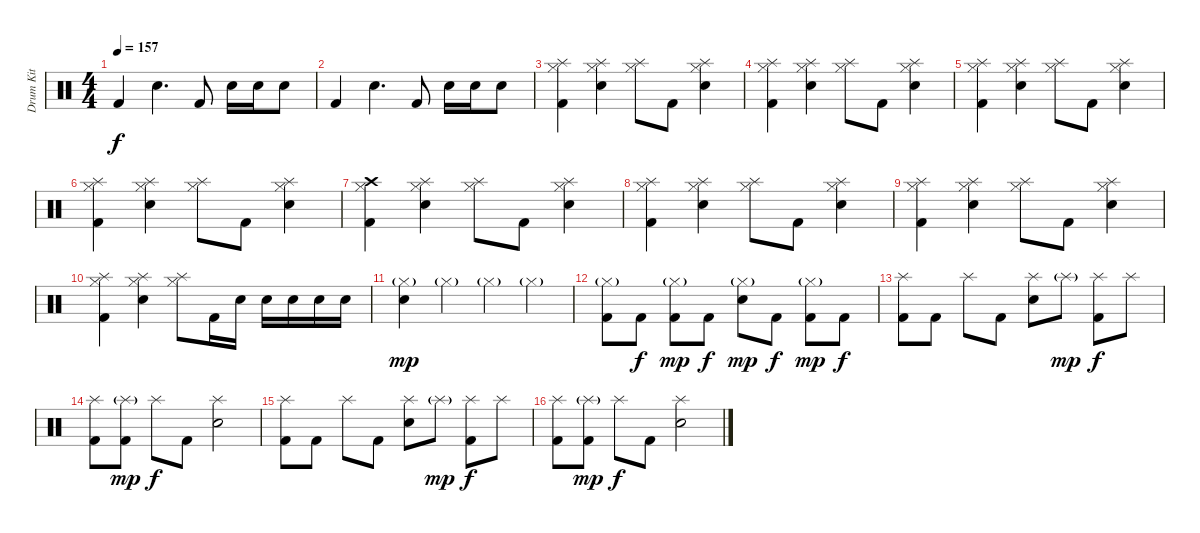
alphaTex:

\track ("Drum Kit" "Drum Kit") {instrument percussion}
\staff {score}
\articulation defaults
\ts (4 4)
\tempo 157
\clef neutral
\ks c "Kick (hit) 2".4{dy f} "Snare (hit) 2".4{d} "Kick (hit) 2".8 "Snare (hit) 2".16 "Snare (hit) 2".16 "Snare (hit) 2".8
|
"Kick (hit) 2".4 "Snare (hit) 2".4{d} "Kick (hit) 2".8 "Snare (hit) 2".16 "Snare (hit) 2".16 "Snare (hit) 2".8 |
("Splash (hit)" "Hi-Hat (closed)" "Kick (hit) 2").4 ("Splash (hit)" "Hi-Hat (closed)" "Snare (hit) 2").4 ("Splash (hit)" "Hi-Hat (closed)").8 "Kick (hit) 2".8 ("Splash (hit)" "Hi-Hat (closed)" "Snare (hit) 2").4 |
("Splash (hit)" "Hi-Hat (closed)" "Kick (hit) 2").4 ("Splash (hit)" "Hi-Hat (closed)" "Snare (hit) 2").4 ("Splash (hit)" "Hi-Hat (closed)").8 "Kick (hit) 2".8 ("Splash (hit)" "Hi-Hat (closed)" "Snare (hit) 2").4 |
("Splash (hit)" "Hi-Hat (closed)" "Kick (hit) 2").4 ("Splash (hit)" "Hi-Hat (closed)" "Snare (hit) 2").4 ("Splash (hit)" "Hi-Hat (closed)").8 "Kick (hit) 2".8 ("Splash (hit)" "Hi-Hat (closed)" "Snare (hit) 2").4 |
("Splash (hit)" "Hi-Hat (closed)" "Kick (hit) 2").4 ("Splash (hit)" "Hi-Hat (closed)" "Snare (hit) 2").4 ("Splash (hit)" "Hi-Hat (closed)").8 "Kick (hit) 2".8 ("Splash (hit)" "Hi-Hat (closed)" "Snare (hit) 2").4 |
("Crash high (hit)" "Hi-Hat (closed)" "Kick (hit) 2").4 ("Splash (hit)" "Hi-Hat (closed)" "Snare (hit) 2").4 ("Splash (hit)" "Hi-Hat (closed)").8 "Kick (hit) 2".8 ("Splash (hit)" "Hi-Hat (closed)" "Snare (hit) 2").4 |
("Splash (hit)" "Hi-Hat (closed)" "Kick (hit) 2").4 ("Splash (hit)" "Hi-Hat (closed)" "Snare (hit) 2").4 ("Splash (hit)" "Hi-Hat (closed)").8 "Kick (hit) 2".8 ("Splash (hit)" "Hi-Hat (closed)" "Snare (hit) 2").4 |
("Splash (hit)" "Hi-Hat (closed)" "Kick (hit) 2").4 ("Splash (hit)" "Hi-Hat (closed)" "Snare (hit) 2").4 ("Splash (hit)" "Hi-Hat (closed)").8 "Kick (hit) 2".8 ("Splash (hit)" "Hi-Hat (closed)" "Snare (hit) 2").4 |
("Splash (hit)" "Hi-Hat (closed)" "Kick (hit) 2").4 ("Splash (hit)" "Hi-Hat (closed)" "Snare (hit) 2").4 ("Splash (hit)" "Hi-Hat (closed)").8 "Kick (hit) 2".16 "Snare (hit) 2".16 "Snare (hit) 2".16 "Snare (hit) 2".16 "Snare (hit) 2".16 "Snare (hit) 2".16 |
("Hi-Hat (closed)"{g} "Snare (hit) 2").4{dy mp} "Hi-Hat (closed)"{g}.4 "Hi-Hat (closed)"{g}.4 "Hi-Hat (closed)"{g}.4 |
("Hi-Hat (closed)"{g} "Kick (hit) 2").8 "Kick (hit) 2".8{dy f} ("Hi-Hat (closed)"{g} "Kick (hit) 2").8{dy mp} "Kick (hit) 2".8{dy f} ("Hi-Hat (closed)"{g} "Snare (hit) 2").8{dy mp} "Kick (hit) 2".8{dy f} ("Hi-Hat (closed)"{g} "Kick (hit) 2").8{dy mp} "Kick (hit) 2".8{dy f} |
("Splash (hit)" "Kick (hit) 2").8 "Kick (hit) 2".8 "Splash (hit)".8 "Kick (hit) 2".8 ("Splash (hit)" "Snare (hit) 2").8 "Splash (hit)"{g}.8{dy mp} ("Splash (hit)" "Kick (hit) 2").8{dy f} "Splash (hit)".8 |
("Splash (hit)" "Kick (hit) 2").8 ("Splash (hit)"{g} "Kick (hit) 2").8{dy mp} "Splash (hit)".8{dy f} "Kick (hit) 2".8 ("Splash (hit)" "Snare (hit) 2").2 |
("Splash (hit)" "Kick (hit) 2").8 "Kick (hit) 2".8 "Splash (hit)".8 "Kick (hit) 2".8 ("Splash (hit)" "Snare (hit) 2").8 "Splash (hit)"{g}.8{dy mp} ("Splash (hit)" "Kick (hit) 2").8{dy f} "Splash (hit)".8 |
("Splash (hit)" "Kick (hit) 2").8 ("Splash (hit)"{g} "Kick (hit) 2").8{dy mp} "Splash (hit)".8{dy f} "Kick (hit) 2".8 ("Splash (hit)" "Snare (hit) 2").2
